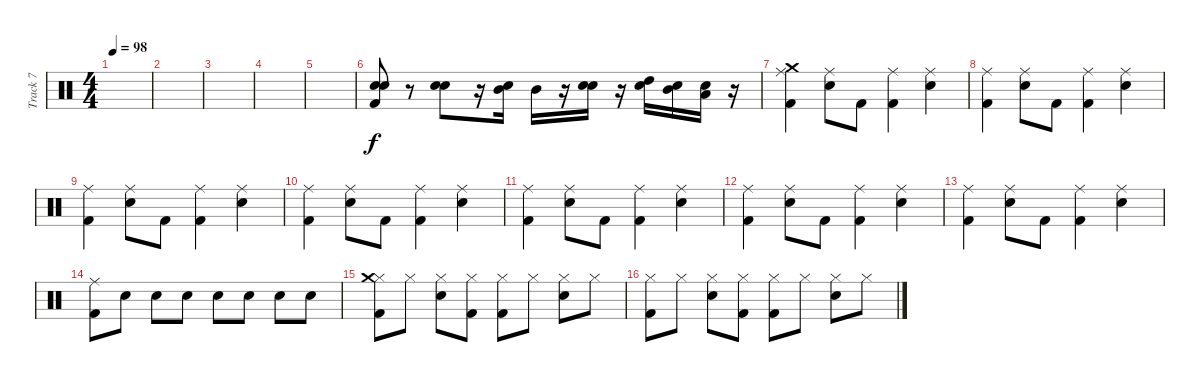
\track ("Track 7" "Track 7") {instrument percussion}
\staff {score}
\articulation defaults
\ts (4 4)
\tempo 98
\clef neutral
\ks c
|
|
|
|
|
("Electric Snare (hit)" "Electric Snare (hit)" "Kick (hit) 2").8 r.8 ("Electric Snare (hit)" "Electric Snare (hit)").8 r.16 ("Mid Tom (hit)" "Electric Snare (hit)").16 "Mid Tom (hit)".16 r.16 ("Electric Snare (hit)" "Electric Snare (hit)").16 r.16 ("Electric Snare (hit)" "High Tom (hit)").16 ("Electric Snare (hit)" "Mid Tom (hit)").16 ("Electric Snare (hit)" "Low Tom (hit)").16 r.16 |
("Ride (middle)" "Crash medium (hit)" "Kick (hit) 2").4 ("Ride (middle)" "Electric Snare (hit)").8 "Kick (hit) 2".8 ("Ride (middle)" "Kick (hit) 2").4 ("Ride (middle)" "Electric Snare (hit)").4 |
("Ride (middle)" "Kick (hit) 2").4 ("Ride (middle)" "Electric Snare (hit)").8 "Kick (hit) 2".8 ("Ride (middle)" "Kick (hit) 2").4 ("Ride (middle)" "Electric Snare (hit)").4 |
("Ride (middle)" "Kick (hit) 2").4 ("Ride (middle)" "Electric Snare (hit)").8 "Kick (hit) 2".8 ("Ride (middle)" "Kick (hit) 2").4 ("Ride (middle)" "Electric Snare (hit)").4 |
("Ride (middle)" "Kick (hit) 2").4 ("Ride (middle)" "Electric Snare (hit)").8 "Kick (hit) 2".8 ("Ride (middle)" "Kick (hit) 2").4 ("Ride (middle)" "Electric Snare (hit)").4 |
("Ride (middle)" "Kick (hit) 2").4 ("Ride (middle)" "Electric Snare (hit)").8 "Kick (hit) 2".8 ("Ride (middle)" "Kick (hit) 2").4 ("Ride (middle)" "Electric Snare (hit)").4 |
("Ride (middle)" "Kick (hit) 2").4 ("Ride (middle)" "Electric Snare (hit)").8 "Kick (hit) 2".8 ("Ride (middle)" "Kick (hit) 2").4 ("Ride (middle)" "Electric Snare (hit)").4 |
("Ride (middle)" "Kick (hit) 2").4 ("Ride (middle)" "Electric Snare (hit)").8 "Kick (hit) 2".8 ("Ride (middle)" "Kick (hit) 2").4 ("Ride (middle)" "Electric Snare (hit)").4 |
("Ride (middle)" "Kick (hit) 2").8 "Electric Snare (hit)".8{volume 4} "Electric Snare (hit)".8{volume 5} "Electric Snare (hit)".8{volume 6} "Electric Snare (hit)".8{volume 7} "Electric Snare (hit)".8{volume 8} "Electric Snare (hit)".8{volume 10} "Electric Snare (hit)".8{volume 13} |
("Hi-Hat (closed)" "Crash medium (hit)" "Kick (hit) 2").8 "Hi-Hat (closed)".8 ("Hi-Hat (closed)" "Electric Snare (hit)").8 ("Hi-Hat (closed)" "Kick (hit) 2").8 ("Hi-Hat (closed)" "Kick (hit) 2").8 "Hi-Hat (closed)".8 ("Hi-Hat (closed)" "Electric Snare (hit)").8 "Hi-Hat (closed)".8 |
("Hi-Hat (closed)" "Kick (hit) 2").8 "Hi-Hat (closed)".8 ("Hi-Hat (closed)" "Electric Snare (hit)").8 ("Hi-Hat (closed)" "Kick (hit) 2").8 ("Hi-Hat (closed)" "Kick (hit) 2").8 "Hi-Hat (closed)".8 ("Hi-Hat (closed)" "Electric Snare (hit)").8 "Hi-Hat (closed)".8
